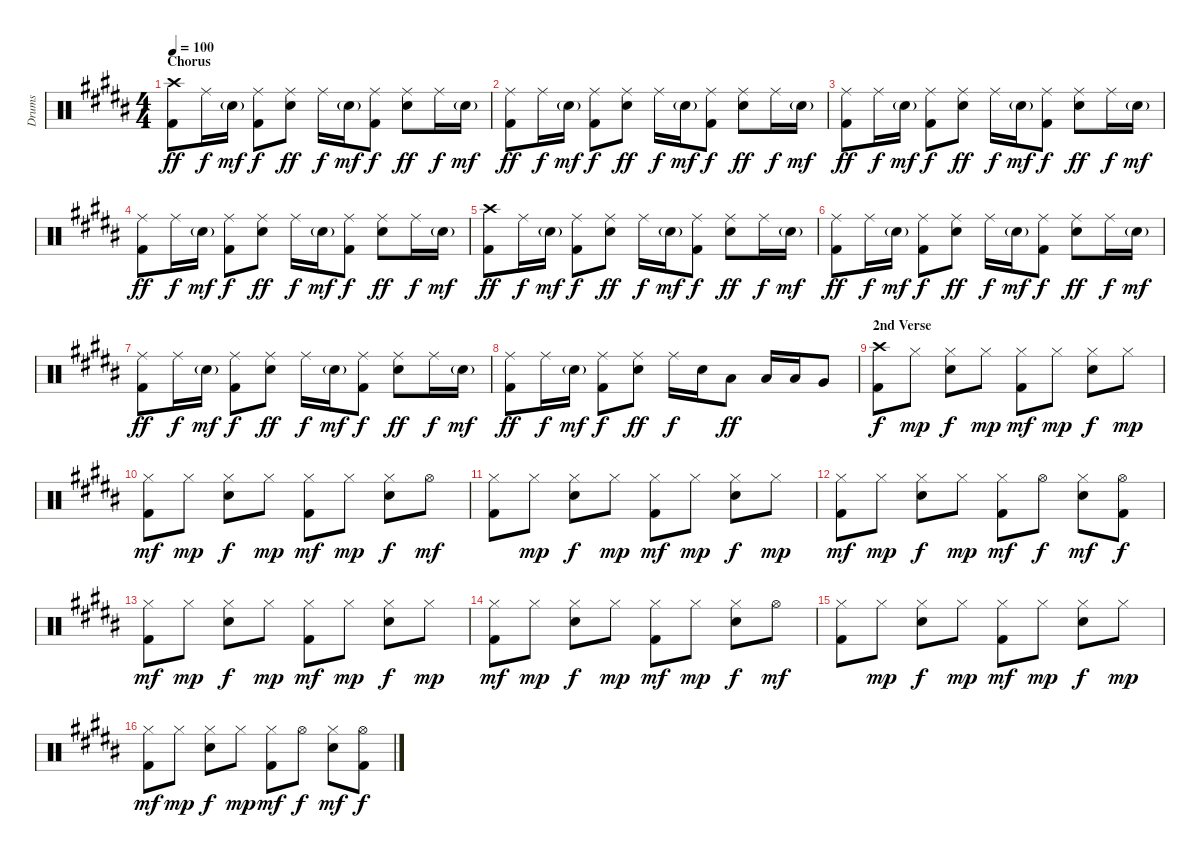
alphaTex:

\track ("Drums" "Drums") {instrument percussion}
\staff {score}
\articulation defaults
\ts (4 4)
\section ("" "Chorus")
\tempo 100
\clef neutral
\ks b
("Crash high (hit)" "Kick (hit) 2").8{dy ff} "Ride (middle)".16{dy f} "Snare (hit) 2"{g}.16{dy mf} ("Ride (middle)" "Kick (hit) 2").8{dy f} ("Ride (middle)" "Snare (hit) 2").8{dy ff} "Ride (middle)".16{dy f} "Snare (hit) 2"{g}.16{dy mf} ("Ride (middle)" "Kick (hit) 2").8{dy f} ("Ride (middle)" "Snare (hit) 2").8{dy ff} "Ride (middle)".16{dy f} "Snare (hit) 2"{g}.16{dy mf} |
("Ride (middle)" "Kick (hit) 2").8{dy ff} "Ride (middle)".16{dy f} "Snare (hit) 2"{g}.16{dy mf} ("Ride (middle)" "Kick (hit) 2").8{dy f} ("Ride (middle)" "Snare (hit) 2").8{dy ff} "Ride (middle)".16{dy f} "Snare (hit) 2"{g}.16{dy mf} ("Ride (middle)" "Kick (hit) 2").8{dy f} ("Ride (middle)" "Snare (hit) 2").8{dy ff} "Ride (middle)".16{dy f} "Snare (hit) 2"{g}.16{dy mf} |
("Ride (middle)" "Kick (hit) 2").8{dy ff} "Ride (middle)".16{dy f} "Snare (hit) 2"{g}.16{dy mf} ("Ride (middle)" "Kick (hit) 2").8{dy f} ("Ride (middle)" "Snare (hit) 2").8{dy ff} "Ride (middle)".16{dy f} "Snare (hit) 2"{g}.16{dy mf} ("Ride (middle)" "Kick (hit) 2").8{dy f} ("Ride (middle)" "Snare (hit) 2").8{dy ff} "Ride (middle)".16{dy f} "Snare (hit) 2"{g}.16{dy mf} |
("Ride (middle)" "Kick (hit) 2").8{dy ff} "Ride (middle)".16{dy f} "Snare (hit) 2"{g}.16{dy mf} ("Ride (middle)" "Kick (hit) 2").8{dy f} ("Ride (middle)" "Snare (hit) 2").8{dy ff} "Ride (middle)".16{dy f} "Snare (hit) 2"{g}.16{dy mf} ("Ride (middle)" "Kick (hit) 2").8{dy f} ("Ride (middle)" "Snare (hit) 2").8{dy ff} "Ride (middle)".16{dy f} "Snare (hit) 2"{g}.16{dy mf} |
("Crash high (hit)" "Kick (hit) 2").8{dy ff} "Ride (middle)".16{dy f} "Snare (hit) 2"{g}.16{dy mf} ("Ride (middle)" "Kick (hit) 2").8{dy f} ("Ride (middle)" "Snare (hit) 2").8{dy ff} "Ride (middle)".16{dy f} "Snare (hit) 2"{g}.16{dy mf} ("Ride (middle)" "Kick (hit) 2").8{dy f} ("Ride (middle)" "Snare (hit) 2").8{dy ff} "Ride (middle)".16{dy f} "Snare (hit) 2"{g}.16{dy mf} |
("Ride (middle)" "Kick (hit) 2").8{dy ff} "Ride (middle)".16{dy f} "Snare (hit) 2"{g}.16{dy mf} ("Ride (middle)" "Kick (hit) 2").8{dy f} ("Ride (middle)" "Snare (hit) 2").8{dy ff} "Ride (middle)".16{dy f} "Snare (hit) 2"{g}.16{dy mf} ("Ride (middle)" "Kick (hit) 2").8{dy f} ("Ride (middle)" "Snare (hit) 2").8{dy ff} "Ride (middle)".16{dy f} "Snare (hit) 2"{g}.16{dy mf} |
("Ride (middle)" "Kick (hit) 2").8{dy ff} "Ride (middle)".16{dy f} "Snare (hit) 2"{g}.16{dy mf} ("Ride (middle)" "Kick (hit) 2").8{dy f} ("Ride (middle)" "Snare (hit) 2").8{dy ff} "Ride (middle)".16{dy f} "Snare (hit) 2"{g}.16{dy mf} ("Ride (middle)" "Kick (hit) 2").8{dy f} ("Ride (middle)" "Snare (hit) 2").8{dy ff} "Ride (middle)".16{dy f} "Snare (hit) 2"{g}.16{dy mf} |
("Ride (middle)" "Kick (hit) 2").8{dy ff} "Ride (middle)".16{dy f} "Snare (hit) 2"{g}.16{dy mf} ("Ride (middle)" "Kick (hit) 2").8{dy f} ("Ride (middle)" "Snare (hit) 2").8{dy ff} "Ride (middle)".16{dy f} "Snare (hit) 2".16 "Low Tom (hit)".8{dy ff} "Low Tom (hit)".16 "Low Tom (hit)".16 "Very Low Tom (hit)".8 |
\section ("" "2nd Verse")
("Crash high (hit)" "Kick (hit) 2").8{dy f} "Hi-Hat (closed)".8{dy mp} ("Hi-Hat (closed)" "Snare (hit) 2").8{dy f} "Hi-Hat (closed)".8{dy mp} ("Hi-Hat (closed)" "Kick (hit) 2").8{dy mf} "Hi-Hat (closed)".8{dy mp} ("Hi-Hat (closed)" "Snare (hit) 2").8{dy f} "Hi-Hat (closed)".8{dy mp} |
("Hi-Hat (closed)" "Kick (hit) 2").8{dy mf} "Hi-Hat (closed)".8{dy mp} ("Hi-Hat (closed)" "Snare (hit) 2").8{dy f} "Hi-Hat (closed)".8{dy mp} ("Hi-Hat (closed)" "Kick (hit) 2").8{dy mf} "Hi-Hat (closed)".8{dy mp} ("Hi-Hat (closed)" "Snare (hit) 2").8{dy f} "Hi-Hat (open)".8{dy mf} |
("Hi-Hat (closed)" "Kick (hit) 2").8 "Hi-Hat (closed)".8{dy mp} ("Hi-Hat (closed)" "Snare (hit) 2").8{dy f} "Hi-Hat (closed)".8{dy mp} ("Hi-Hat (closed)" "Kick (hit) 2").8{dy mf} "Hi-Hat (closed)".8{dy mp} ("Hi-Hat (closed)" "Snare (hit) 2").8{dy f} "Hi-Hat (closed)".8{dy mp} |
("Hi-Hat (closed)" "Kick (hit) 2").8{dy mf} "Hi-Hat (closed)".8{dy mp} ("Hi-Hat (closed)" "Snare (hit) 2").8{dy f} "Hi-Hat (closed)".8{dy mp} ("Hi-Hat (closed)" "Kick (hit) 2").8{dy mf} "Hi-Hat (open)".8{dy f} ("Hi-Hat (closed)" "Snare (hit) 2").8{dy mf} ("Hi-Hat (open)" "Kick (hit) 2").8{dy f} |
("Hi-Hat (closed)" "Kick (hit) 2").8{dy mf} "Hi-Hat (closed)".8{dy mp} ("Hi-Hat (closed)" "Snare (hit) 2").8{dy f} "Hi-Hat (closed)".8{dy mp} ("Hi-Hat (closed)" "Kick (hit) 2").8{dy mf} "Hi-Hat (closed)".8{dy mp} ("Hi-Hat (closed)" "Snare (hit) 2").8{dy f} "Hi-Hat (closed)".8{dy mp} |
("Hi-Hat (closed)" "Kick (hit) 2").8{dy mf} "Hi-Hat (closed)".8{dy mp} ("Hi-Hat (closed)" "Snare (hit) 2").8{dy f} "Hi-Hat (closed)".8{dy mp} ("Hi-Hat (closed)" "Kick (hit) 2").8{dy mf} "Hi-Hat (closed)".8{dy mp} ("Hi-Hat (closed)" "Snare (hit) 2").8{dy f} "Hi-Hat (open)".8{dy mf} |
("Hi-Hat (closed)" "Kick (hit) 2").8 "Hi-Hat (closed)".8{dy mp} ("Hi-Hat (closed)" "Snare (hit) 2").8{dy f} "Hi-Hat (closed)".8{dy mp} ("Hi-Hat (closed)" "Kick (hit) 2").8{dy mf} "Hi-Hat (closed)".8{dy mp} ("Hi-Hat (closed)" "Snare (hit) 2").8{dy f} "Hi-Hat (closed)".8{dy mp} |
("Hi-Hat (closed)" "Kick (hit) 2").8{dy mf} "Hi-Hat (closed)".8{dy mp} ("Hi-Hat (closed)" "Snare (hit) 2").8{dy f} "Hi-Hat (closed)".8{dy mp} ("Hi-Hat (closed)" "Kick (hit) 2").8{dy mf} "Hi-Hat (open)".8{dy f} ("Hi-Hat (closed)" "Snare (hit) 2").8{dy mf} ("Hi-Hat (open)" "Kick (hit) 2").8{dy f}
